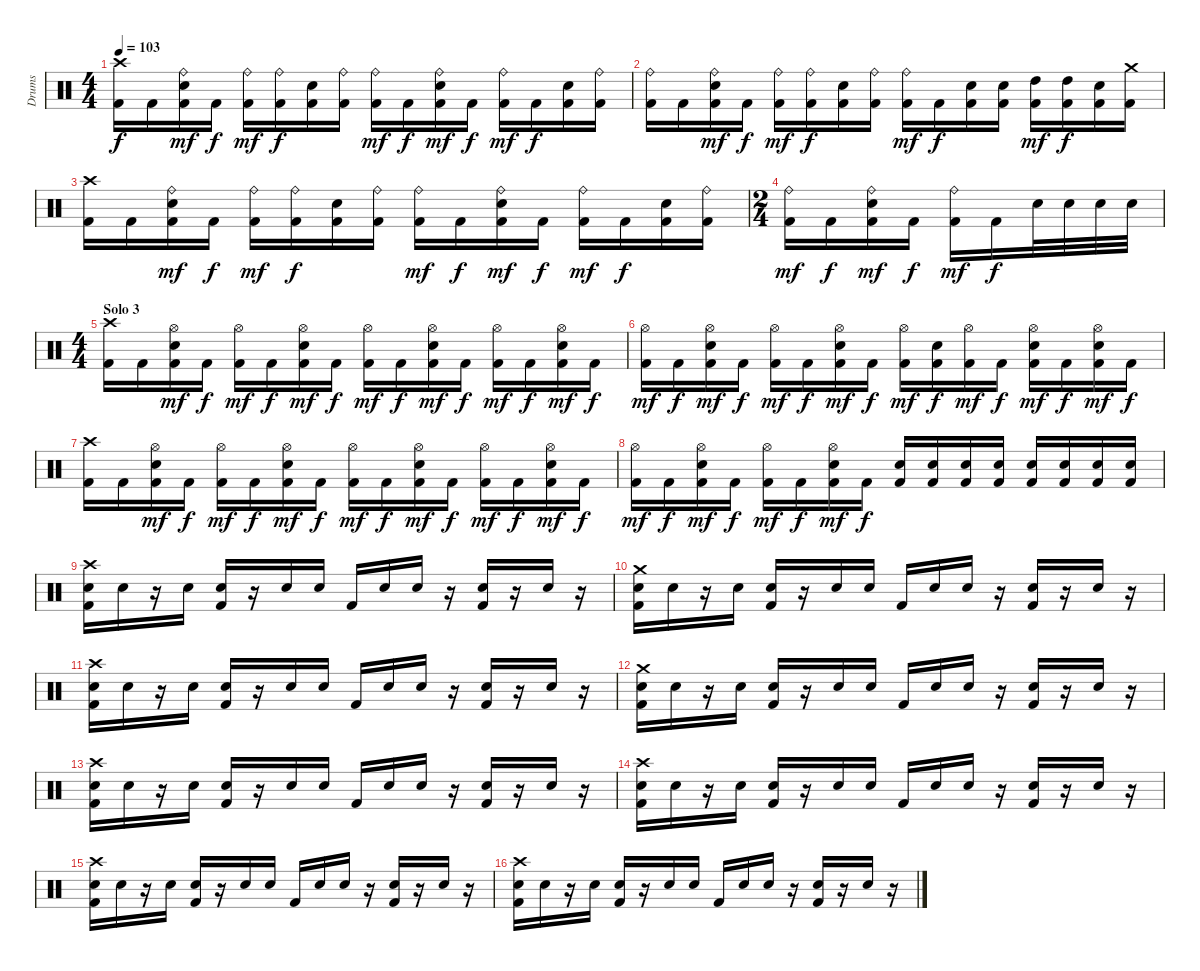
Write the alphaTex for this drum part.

\track ("Drums" "Drums") {instrument percussion}
\staff {score}
\articulation defaults
\ts (4 4)
\tempo 103
\clef neutral
\ks c
("Crash high (hit)" "Kick (hit) 2").16{dy f} "Kick (hit) 2".16 ("Ride (bell)" "Electric Snare (hit)" "Kick (hit) 2").16{dy mf} "Kick (hit) 2".16{dy f} ("Ride (bell)" "Kick (hit) 2").16{dy mf} ("Ride (bell)" "Kick (hit) 2").16{dy f} ("Electric Snare (hit)" "Kick (hit) 2").16 ("Ride (bell)" "Kick (hit) 2").16 ("Ride (bell)" "Kick (hit) 2").16{dy mf} "Kick (hit) 2".16{dy f} ("Ride (bell)" "Electric Snare (hit)" "Kick (hit) 2").16{dy mf} "Kick (hit) 2".16{dy f} ("Ride (bell)" "Kick (hit) 2").16{dy mf} "Kick (hit) 2".16{dy f} ("Electric Snare (hit)" "Kick (hit) 2").16 ("Ride (bell)" "Kick (hit) 2").16 |
("Ride (bell)" "Kick (hit) 2").16 "Kick (hit) 2".16 ("Ride (bell)" "Electric Snare (hit)" "Kick (hit) 2").16{dy mf} "Kick (hit) 2".16{dy f} ("Ride (bell)" "Kick (hit) 2").16{dy mf} ("Ride (bell)" "Kick (hit) 2").16{dy f} ("Electric Snare (hit)" "Kick (hit) 2").16 ("Ride (bell)" "Kick (hit) 2").16 ("Ride (bell)" "Kick (hit) 2").16{dy mf} "Kick (hit) 2".16{dy f} ("Electric Snare (hit)" "Kick (hit) 2").16 ("Electric Snare (hit)" "Kick (hit) 2").16 ("High Tom (hit)" "Kick (hit) 2").16{dy mf} ("High Tom (hit)" "Kick (hit) 2").16{dy f} ("Electric Snare (hit)" "Kick (hit) 2").16 ("Crash medium (hit)" "Kick (hit) 2").16 |
("Crash high (hit)" "Kick (hit) 2").16 "Kick (hit) 2".16 ("Ride (bell)" "Electric Snare (hit)" "Kick (hit) 2").16{dy mf} "Kick (hit) 2".16{dy f} ("Ride (bell)" "Kick (hit) 2").16{dy mf} ("Ride (bell)" "Kick (hit) 2").16{dy f} ("Electric Snare (hit)" "Kick (hit) 2").16 ("Ride (bell)" "Kick (hit) 2").16 ("Ride (bell)" "Kick (hit) 2").16{dy mf} "Kick (hit) 2".16{dy f} ("Ride (bell)" "Electric Snare (hit)" "Kick (hit) 2").16{dy mf} "Kick (hit) 2".16{dy f} ("Ride (bell)" "Kick (hit) 2").16{dy mf} "Kick (hit) 2".16{dy f} ("Electric Snare (hit)" "Kick (hit) 2").16 ("Ride (bell)" "Kick (hit) 2").16 |
\ts (2 4)
("Ride (bell)" "Kick (hit) 2").16{dy mf} "Kick (hit) 2".16{dy f} ("Ride (bell)" "Electric Snare (hit)" "Kick (hit) 2").16{dy mf} "Kick (hit) 2".16{dy f} ("Ride (bell)" "Kick (hit) 2").16{dy mf} "Kick (hit) 2".16{dy f} "Electric Snare (hit)".32 "Electric Snare (hit)".32 "Electric Snare (hit)".32 "Electric Snare (hit)".32 |
\ts (4 4)
\section ("" "Solo 3")
("Crash high (hit)" "Kick (hit) 2").16 "Kick (hit) 2".16 ("Hi-Hat (open)" "Electric Snare (hit)" "Kick (hit) 2").16{dy mf} "Kick (hit) 2".16{dy f} ("Hi-Hat (open)" "Kick (hit) 2").16{dy mf} "Kick (hit) 2".16{dy f} ("Hi-Hat (open)" "Electric Snare (hit)" "Kick (hit) 2").16{dy mf} "Kick (hit) 2".16{dy f} ("Hi-Hat (open)" "Kick (hit) 2").16{dy mf} "Kick (hit) 2".16{dy f} ("Hi-Hat (open)" "Electric Snare (hit)" "Kick (hit) 2").16{dy mf} "Kick (hit) 2".16{dy f} ("Hi-Hat (open)" "Kick (hit) 2").16{dy mf} "Kick (hit) 2".16{dy f} ("Hi-Hat (open)" "Electric Snare (hit)" "Kick (hit) 2").16{dy mf} "Kick (hit) 2".16{dy f} |
("Hi-Hat (open)" "Kick (hit) 2").16{dy mf} "Kick (hit) 2".16{dy f} ("Hi-Hat (open)" "Electric Snare (hit)" "Kick (hit) 2").16{dy mf} "Kick (hit) 2".16{dy f} ("Hi-Hat (open)" "Kick (hit) 2").16{dy mf} "Kick (hit) 2".16{dy f} ("Hi-Hat (open)" "Electric Snare (hit)" "Kick (hit) 2").16{dy mf} "Kick (hit) 2".16{dy f} ("Hi-Hat (open)" "Kick (hit) 2").16{dy mf} ("Electric Snare (hit)" "Kick (hit) 2").16{dy f} ("Hi-Hat (open)" "Kick (hit) 2").16{dy mf} "Kick (hit) 2".16{dy f} ("Hi-Hat (open)" "Electric Snare (hit)" "Kick (hit) 2").16{dy mf} "Kick (hit) 2".16{dy f} ("Hi-Hat (open)" "Electric Snare (hit)" "Kick (hit) 2").16{dy mf} "Kick (hit) 2".16{dy f} |
("Crash high (hit)" "Kick (hit) 2").16 "Kick (hit) 2".16 ("Hi-Hat (open)" "Electric Snare (hit)" "Kick (hit) 2").16{dy mf} "Kick (hit) 2".16{dy f} ("Hi-Hat (open)" "Kick (hit) 2").16{dy mf} "Kick (hit) 2".16{dy f} ("Hi-Hat (open)" "Electric Snare (hit)" "Kick (hit) 2").16{dy mf} "Kick (hit) 2".16{dy f} ("Hi-Hat (open)" "Kick (hit) 2").16{dy mf} "Kick (hit) 2".16{dy f} ("Hi-Hat (open)" "Electric Snare (hit)" "Kick (hit) 2").16{dy mf} "Kick (hit) 2".16{dy f} ("Hi-Hat (open)" "Kick (hit) 2").16{dy mf} "Kick (hit) 2".16{dy f} ("Hi-Hat (open)" "Electric Snare (hit)" "Kick (hit) 2").16{dy mf} "Kick (hit) 2".16{dy f} |
("Hi-Hat (open)" "Kick (hit) 2").16{dy mf} "Kick (hit) 2".16{dy f} ("Hi-Hat (open)" "Electric Snare (hit)" "Kick (hit) 2").16{dy mf} "Kick (hit) 2".16{dy f} ("Hi-Hat (open)" "Kick (hit) 2").16{dy mf} "Kick (hit) 2".16{dy f} ("Hi-Hat (open)" "Electric Snare (hit)" "Kick (hit) 2").16{dy mf} "Kick (hit) 2".16{dy f} ("Electric Snare (hit)" "Kick (hit) 2").16 ("Electric Snare (hit)" "Kick (hit) 2").16 ("Electric Snare (hit)" "Kick (hit) 2").16 ("Electric Snare (hit)" "Kick (hit) 2").16 ("Electric Snare (hit)" "Kick (hit) 2").16 ("Electric Snare (hit)" "Kick (hit) 2").16 ("Electric Snare (hit)" "Kick (hit) 2").16 ("Electric Snare (hit)" "Kick (hit) 2").16 |
("Crash high (hit)" "Electric Snare (hit)" "Kick (hit) 2").16 "Electric Snare (hit)".16 r.16 "Electric Snare (hit)".16 ("Electric Snare (hit)" "Kick (hit) 2").16 r.16 "Electric Snare (hit)".16 "Electric Snare (hit)".16 "Kick (hit) 2".16 "Electric Snare (hit)".16 "Electric Snare (hit)".16 r.16 ("Electric Snare (hit)" "Kick (hit) 2").16 r.16 "Electric Snare (hit)".16 r.16 |
("Crash medium (hit)" "Electric Snare (hit)" "Kick (hit) 2").16 "Electric Snare (hit)".16 r.16 "Electric Snare (hit)".16 ("Electric Snare (hit)" "Kick (hit) 2").16 r.16 "Electric Snare (hit)".16 "Electric Snare (hit)".16 "Kick (hit) 2".16 "Electric Snare (hit)".16 "Electric Snare (hit)".16 r.16 ("Electric Snare (hit)" "Kick (hit) 2").16 r.16 "Electric Snare (hit)".16 r.16 |
("Crash high (hit)" "Electric Snare (hit)" "Kick (hit) 2").16 "Electric Snare (hit)".16 r.16 "Electric Snare (hit)".16 ("Electric Snare (hit)" "Kick (hit) 2").16 r.16 "Electric Snare (hit)".16 "Electric Snare (hit)".16 "Kick (hit) 2".16 "Electric Snare (hit)".16 "Electric Snare (hit)".16 r.16 ("Electric Snare (hit)" "Kick (hit) 2").16 r.16 "Electric Snare (hit)".16 r.16 |
("Crash medium (hit)" "Electric Snare (hit)" "Kick (hit) 2").16 "Electric Snare (hit)".16 r.16 "Electric Snare (hit)".16 ("Electric Snare (hit)" "Kick (hit) 2").16 r.16 "Electric Snare (hit)".16 "Electric Snare (hit)".16 "Kick (hit) 2".16 "Electric Snare (hit)".16 "Electric Snare (hit)".16 r.16 ("Electric Snare (hit)" "Kick (hit) 2").16 r.16 "Electric Snare (hit)".16 r.16 |
("Crash high (hit)" "Electric Snare (hit)" "Kick (hit) 2").16 "Electric Snare (hit)".16 r.16 "Electric Snare (hit)".16 ("Electric Snare (hit)" "Kick (hit) 2").16 r.16 "Electric Snare (hit)".16 "Electric Snare (hit)".16 "Kick (hit) 2".16 "Electric Snare (hit)".16 "Electric Snare (hit)".16 r.16 ("Electric Snare (hit)" "Kick (hit) 2").16 r.16 "Electric Snare (hit)".16 r.16 |
("Crash high (hit)" "Electric Snare (hit)" "Kick (hit) 2").16 "Electric Snare (hit)".16 r.16 "Electric Snare (hit)".16 ("Electric Snare (hit)" "Kick (hit) 2").16 r.16 "Electric Snare (hit)".16 "Electric Snare (hit)".16 "Kick (hit) 2".16 "Electric Snare (hit)".16 "Electric Snare (hit)".16 r.16 ("Electric Snare (hit)" "Kick (hit) 2").16 r.16 "Electric Snare (hit)".16 r.16 |
("Crash high (hit)" "Electric Snare (hit)" "Kick (hit) 2").16 "Electric Snare (hit)".16 r.16 "Electric Snare (hit)".16 ("Electric Snare (hit)" "Kick (hit) 2").16 r.16 "Electric Snare (hit)".16 "Electric Snare (hit)".16 "Kick (hit) 2".16 "Electric Snare (hit)".16 "Electric Snare (hit)".16 r.16 ("Electric Snare (hit)" "Kick (hit) 2").16 r.16 "Electric Snare (hit)".16 r.16 |
("Crash high (hit)" "Electric Snare (hit)" "Kick (hit) 2").16 "Electric Snare (hit)".16 r.16 "Electric Snare (hit)".16 ("Electric Snare (hit)" "Kick (hit) 2").16 r.16 "Electric Snare (hit)".16 "Electric Snare (hit)".16 "Kick (hit) 2".16 "Electric Snare (hit)".16 "Electric Snare (hit)".16 r.16 ("Electric Snare (hit)" "Kick (hit) 2").16 r.16 "Electric Snare (hit)".16 r.16
